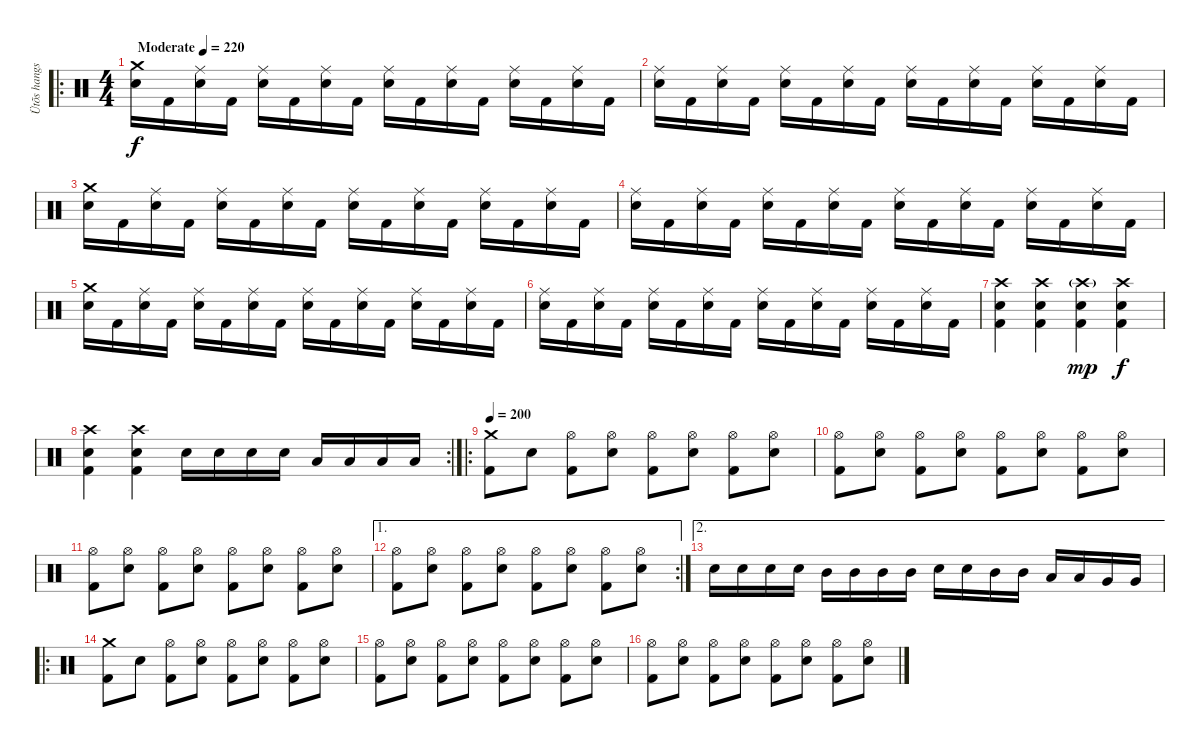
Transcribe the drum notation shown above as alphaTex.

\track ("Ütõs hangszer" "Ütõs hangs") {instrument percussion}
\staff {score}
\articulation defaults
\ro
\ts (4 4)
\tempo (220 "Moderate")
\clef neutral
\ks c
("Crash medium (hit)" "Snare (hit) 2").16{dy f} "Kick (hit) 2".16 ("Ride (middle)" "Snare (hit) 2").16 "Kick (hit) 2".16 ("Ride (middle)" "Snare (hit) 2").16 "Kick (hit) 2".16 ("Ride (middle)" "Snare (hit) 2").16 "Kick (hit) 2".16 ("Ride (middle)" "Snare (hit) 2").16 "Kick (hit) 2".16 ("Ride (middle)" "Snare (hit) 2").16 "Kick (hit) 2".16 ("Ride (middle)" "Snare (hit) 2").16 "Kick (hit) 2".16 ("Ride (middle)" "Snare (hit) 2").16 "Kick (hit) 2".16 |
("Ride (middle)" "Snare (hit) 2").16 "Kick (hit) 2".16 ("Ride (middle)" "Snare (hit) 2").16 "Kick (hit) 2".16 ("Ride (middle)" "Snare (hit) 2").16 "Kick (hit) 2".16 ("Ride (middle)" "Snare (hit) 2").16 "Kick (hit) 2".16 ("Ride (middle)" "Snare (hit) 2").16 "Kick (hit) 2".16 ("Ride (middle)" "Snare (hit) 2").16 "Kick (hit) 2".16 ("Ride (middle)" "Snare (hit) 2").16 "Kick (hit) 2".16 ("Ride (middle)" "Snare (hit) 2").16 "Kick (hit) 2".16 |
("Crash medium (hit)" "Snare (hit) 2").16 "Kick (hit) 2".16 ("Ride (middle)" "Snare (hit) 2").16 "Kick (hit) 2".16 ("Ride (middle)" "Snare (hit) 2").16 "Kick (hit) 2".16 ("Ride (middle)" "Snare (hit) 2").16 "Kick (hit) 2".16 ("Ride (middle)" "Snare (hit) 2").16 "Kick (hit) 2".16 ("Ride (middle)" "Snare (hit) 2").16 "Kick (hit) 2".16 ("Ride (middle)" "Snare (hit) 2").16 "Kick (hit) 2".16 ("Ride (middle)" "Snare (hit) 2").16 "Kick (hit) 2".16 |
("Ride (middle)" "Snare (hit) 2").16 "Kick (hit) 2".16 ("Ride (middle)" "Snare (hit) 2").16 "Kick (hit) 2".16 ("Ride (middle)" "Snare (hit) 2").16 "Kick (hit) 2".16 ("Ride (middle)" "Snare (hit) 2").16 "Kick (hit) 2".16 ("Ride (middle)" "Snare (hit) 2").16 "Kick (hit) 2".16 ("Ride (middle)" "Snare (hit) 2").16 "Kick (hit) 2".16 ("Ride (middle)" "Snare (hit) 2").16 "Kick (hit) 2".16 ("Ride (middle)" "Snare (hit) 2").16 "Kick (hit) 2".16 |
("Crash medium (hit)" "Snare (hit) 2").16 "Kick (hit) 2".16 ("Ride (middle)" "Snare (hit) 2").16 "Kick (hit) 2".16 ("Ride (middle)" "Snare (hit) 2").16 "Kick (hit) 2".16 ("Ride (middle)" "Snare (hit) 2").16 "Kick (hit) 2".16 ("Ride (middle)" "Snare (hit) 2").16 "Kick (hit) 2".16 ("Ride (middle)" "Snare (hit) 2").16 "Kick (hit) 2".16 ("Ride (middle)" "Snare (hit) 2").16 "Kick (hit) 2".16 ("Ride (middle)" "Snare (hit) 2").16 "Kick (hit) 2".16 |
("Ride (middle)" "Snare (hit) 2").16 "Kick (hit) 2".16 ("Ride (middle)" "Snare (hit) 2").16 "Kick (hit) 2".16 ("Ride (middle)" "Snare (hit) 2").16 "Kick (hit) 2".16 ("Ride (middle)" "Snare (hit) 2").16 "Kick (hit) 2".16 ("Ride (middle)" "Snare (hit) 2").16 "Kick (hit) 2".16 ("Ride (middle)" "Snare (hit) 2").16 "Kick (hit) 2".16 ("Ride (middle)" "Snare (hit) 2").16 "Kick (hit) 2".16 ("Ride (middle)" "Snare (hit) 2").16 "Kick (hit) 2".16 |
("Crash high (hit)" "Snare (hit) 2" "Kick (hit) 2").4 ("Crash high (hit)" "Snare (hit) 2" "Kick (hit) 2").4 ("Crash high (hit)"{g} "Snare (hit) 2" "Kick (hit) 2").4{dy mp} ("Crash high (hit)" "Snare (hit) 2" "Kick (hit) 2").4{dy f} |
\rc 2
("Crash high (hit)" "Snare (hit) 2" "Kick (hit) 2").4 ("Crash high (hit)" "Snare (hit) 2" "Kick (hit) 2").4 "Snare (hit) 2".16 "Snare (hit) 2".16 "Snare (hit) 2".16 "Snare (hit) 2".16 "Low Tom (hit)".16 "Low Tom (hit)".16 "Low Tom (hit)".16 "Low Tom (hit)".16 |
\ro
\tempo 200
("Crash medium (hit)" "Kick (hit) 2").8 "Snare (hit) 2".8 ("Hi-Hat (open)" "Kick (hit) 2").8 ("Hi-Hat (open)" "Snare (hit) 2").8 ("Hi-Hat (open)" "Kick (hit) 2").8 ("Hi-Hat (open)" "Snare (hit) 2").8 ("Hi-Hat (open)" "Kick (hit) 2").8 ("Hi-Hat (open)" "Snare (hit) 2").8 |
("Hi-Hat (open)" "Kick (hit) 2").8 ("Hi-Hat (open)" "Snare (hit) 2").8 ("Hi-Hat (open)" "Kick (hit) 2").8 ("Hi-Hat (open)" "Snare (hit) 2").8 ("Hi-Hat (open)" "Kick (hit) 2").8 ("Hi-Hat (open)" "Snare (hit) 2").8 ("Hi-Hat (open)" "Kick (hit) 2").8 ("Hi-Hat (open)" "Snare (hit) 2").8 |
("Hi-Hat (open)" "Kick (hit) 2").8 ("Hi-Hat (open)" "Snare (hit) 2").8 ("Hi-Hat (open)" "Kick (hit) 2").8 ("Hi-Hat (open)" "Snare (hit) 2").8 ("Hi-Hat (open)" "Kick (hit) 2").8 ("Hi-Hat (open)" "Snare (hit) 2").8 ("Hi-Hat (open)" "Kick (hit) 2").8 ("Hi-Hat (open)" "Snare (hit) 2").8 |
\ae 1
\rc 2
("Hi-Hat (open)" "Kick (hit) 2").8 ("Hi-Hat (open)" "Snare (hit) 2").8 ("Hi-Hat (open)" "Kick (hit) 2").8 ("Hi-Hat (open)" "Snare (hit) 2").8 ("Hi-Hat (open)" "Kick (hit) 2").8 ("Hi-Hat (open)" "Snare (hit) 2").8 ("Hi-Hat (open)" "Kick (hit) 2").8 ("Hi-Hat (open)" "Snare (hit) 2").8 |
\ae 2 "Snare (hit) 2".16 "Snare (hit) 2".16 "Snare (hit) 2".16 "Snare (hit) 2".16 "Mid Tom (hit)".16 "Mid Tom (hit)".16 "Mid Tom (hit)".16 "Mid Tom (hit)".16 "Snare (hit) 2".16 "Snare (hit) 2".16 "Mid Tom (hit)".16 "Mid Tom (hit)".16 "Low Tom (hit)".16 "Low Tom (hit)".16 "Very Low Tom (hit)".16 "Very Low Tom (hit)".16
|
\ro
("Crash medium (hit)" "Kick (hit) 2").8 "Snare (hit) 2".8 ("Hi-Hat (open)" "Kick (hit) 2").8 ("Hi-Hat (open)" "Snare (hit) 2").8 ("Hi-Hat (open)" "Kick (hit) 2").8 ("Hi-Hat (open)" "Snare (hit) 2").8 ("Hi-Hat (open)" "Kick (hit) 2").8 ("Hi-Hat (open)" "Snare (hit) 2").8 |
("Hi-Hat (open)" "Kick (hit) 2").8 ("Hi-Hat (open)" "Snare (hit) 2").8 ("Hi-Hat (open)" "Kick (hit) 2").8 ("Hi-Hat (open)" "Snare (hit) 2").8 ("Hi-Hat (open)" "Kick (hit) 2").8 ("Hi-Hat (open)" "Snare (hit) 2").8 ("Hi-Hat (open)" "Kick (hit) 2").8 ("Hi-Hat (open)" "Snare (hit) 2").8 |
("Hi-Hat (open)" "Kick (hit) 2").8 ("Hi-Hat (open)" "Snare (hit) 2").8 ("Hi-Hat (open)" "Kick (hit) 2").8 ("Hi-Hat (open)" "Snare (hit) 2").8 ("Hi-Hat (open)" "Kick (hit) 2").8 ("Hi-Hat (open)" "Snare (hit) 2").8 ("Hi-Hat (open)" "Kick (hit) 2").8 ("Hi-Hat (open)" "Snare (hit) 2").8
